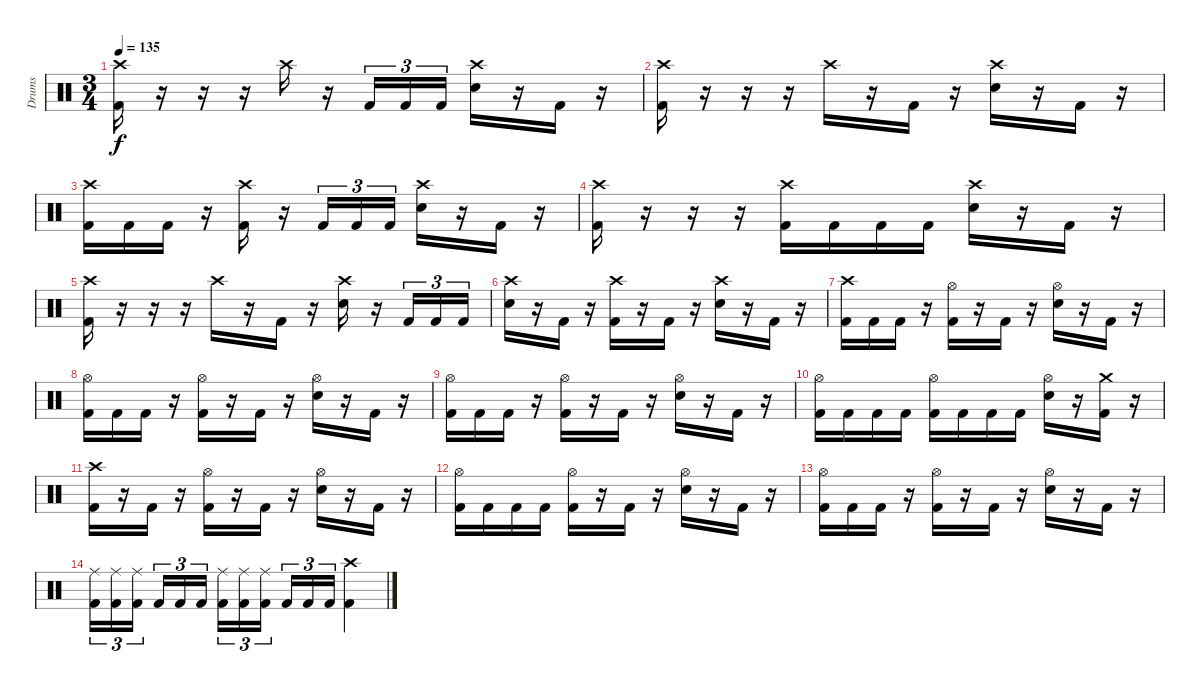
\track ("Drums" "Drums") {instrument percussion}
\staff {score}
\articulation defaults
\ts (3 4)
\tempo 135
\clef neutral
\ks c
("Crash high (hit)" "Kick (hit) 2").16{dy f} r.16 r.16 r.16 "Crash high (hit)".16 r.16 "Kick (hit) 2".16{tu (3 2)} "Kick (hit) 2".16{tu (3 2)} "Kick (hit) 2".16{tu (3 2)} ("Crash high (hit)" "Electric Snare (hit)").16 r.16 "Kick (hit) 2".16 r.16 |
("Crash high (hit)" "Kick (hit) 2").16 r.16 r.16 r.16 "Crash high (hit)".16 r.16 "Kick (hit) 2".16 r.16 ("Crash high (hit)" "Electric Snare (hit)").16 r.16 "Kick (hit) 2".16 r.16 |
("Crash high (hit)" "Kick (hit) 2").16 "Kick (hit) 2".16 "Kick (hit) 2".16 r.16 ("Crash high (hit)" "Kick (hit) 2").16 r.16 "Kick (hit) 2".16{tu (3 2)} "Kick (hit) 2".16{tu (3 2)} "Kick (hit) 2".16{tu (3 2)} ("Crash high (hit)" "Electric Snare (hit)").16 r.16 "Kick (hit) 2".16 r.16 |
("Crash high (hit)" "Kick (hit) 2").16 r.16 r.16 r.16 ("Crash high (hit)" "Kick (hit) 2").16 "Kick (hit) 2".16 "Kick (hit) 2".16 "Kick (hit) 2".16 ("Crash high (hit)" "Electric Snare (hit)").16 r.16 "Kick (hit) 2".16 r.16 |
("Crash high (hit)" "Kick (hit) 2").16 r.16 r.16 r.16 "Crash high (hit)".16 r.16 "Kick (hit) 2".16 r.16 ("Crash high (hit)" "Electric Snare (hit)").16 r.16 "Kick (hit) 2".16{tu (3 2)} "Kick (hit) 2".16{tu (3 2)} "Kick (hit) 2".16{tu (3 2)} |
("Crash high (hit)" "Electric Snare (hit)").16 r.16 "Kick (hit) 2".16 r.16 ("Crash high (hit)" "Kick (hit) 2").16 r.16 "Kick (hit) 2".16 r.16 ("Crash high (hit)" "Electric Snare (hit)").16 r.16 "Kick (hit) 2".16 r.16 |
("Crash high (hit)" "Kick (hit) 2").16 "Kick (hit) 2".16 "Kick (hit) 2".16 r.16 ("Hi-Hat (open)" "Kick (hit) 2").16 r.16 "Kick (hit) 2".16 r.16 ("Hi-Hat (open)" "Electric Snare (hit)").16 r.16 "Kick (hit) 2".16 r.16 |
("Hi-Hat (open)" "Kick (hit) 2").16 "Kick (hit) 2".16 "Kick (hit) 2".16 r.16 ("Hi-Hat (open)" "Kick (hit) 2").16 r.16 "Kick (hit) 2".16 r.16 ("Hi-Hat (open)" "Electric Snare (hit)").16 r.16 "Kick (hit) 2".16 r.16 |
("Hi-Hat (open)" "Kick (hit) 2").16 "Kick (hit) 2".16 "Kick (hit) 2".16 r.16 ("Hi-Hat (open)" "Kick (hit) 2").16 r.16 "Kick (hit) 2".16 r.16 ("Hi-Hat (open)" "Electric Snare (hit)").16 r.16 "Kick (hit) 2".16 r.16 |
("Hi-Hat (open)" "Kick (hit) 2").16 "Kick (hit) 2".16 "Kick (hit) 2".16 "Kick (hit) 2".16 ("Hi-Hat (open)" "Kick (hit) 2").16 "Kick (hit) 2".16 "Kick (hit) 2".16 "Kick (hit) 2".16 ("Hi-Hat (open)" "Electric Snare (hit)").16 r.16 ("Crash medium (hit)" "Kick (hit) 2").16 r.16 |
("Crash high (hit)" "Kick (hit) 2").16 r.16 "Kick (hit) 2".16 r.16 ("Hi-Hat (open)" "Kick (hit) 2").16 r.16 "Kick (hit) 2".16 r.16 ("Hi-Hat (open)" "Electric Snare (hit)").16 r.16 "Kick (hit) 2".16 r.16 |
("Hi-Hat (open)" "Kick (hit) 2").16 "Kick (hit) 2".16 "Kick (hit) 2".16 "Kick (hit) 2".16 ("Hi-Hat (open)" "Kick (hit) 2").16 r.16 "Kick (hit) 2".16 r.16 ("Hi-Hat (open)" "Electric Snare (hit)").16 r.16 "Kick (hit) 2".16 r.16 |
("Hi-Hat (open)" "Kick (hit) 2").16 "Kick (hit) 2".16 "Kick (hit) 2".16 r.16 ("Hi-Hat (open)" "Kick (hit) 2").16 r.16 "Kick (hit) 2".16 r.16 ("Hi-Hat (open)" "Electric Snare (hit)").16 r.16 "Kick (hit) 2".16 r.16 |
("Ride (middle)" "Kick (hit) 2").16{tu (3 2)} ("Ride (middle)" "Kick (hit) 2").16{tu (3 2)} ("Ride (middle)" "Kick (hit) 2").16{tu (3 2) beam splitsecondary} "Kick (hit) 2".16{tu (3 2)} "Kick (hit) 2".16{tu (3 2)} "Kick (hit) 2".16{tu (3 2)} ("Ride (middle)" "Kick (hit) 2").16{tu (3 2)} ("Ride (middle)" "Kick (hit) 2").16{tu (3 2)} ("Ride (middle)" "Kick (hit) 2").16{tu (3 2) beam splitsecondary} "Kick (hit) 2".16{tu (3 2)} "Kick (hit) 2".16{tu (3 2)} "Kick (hit) 2".16{tu (3 2)} ("Crash high (hit)" "Kick (hit) 2").4
